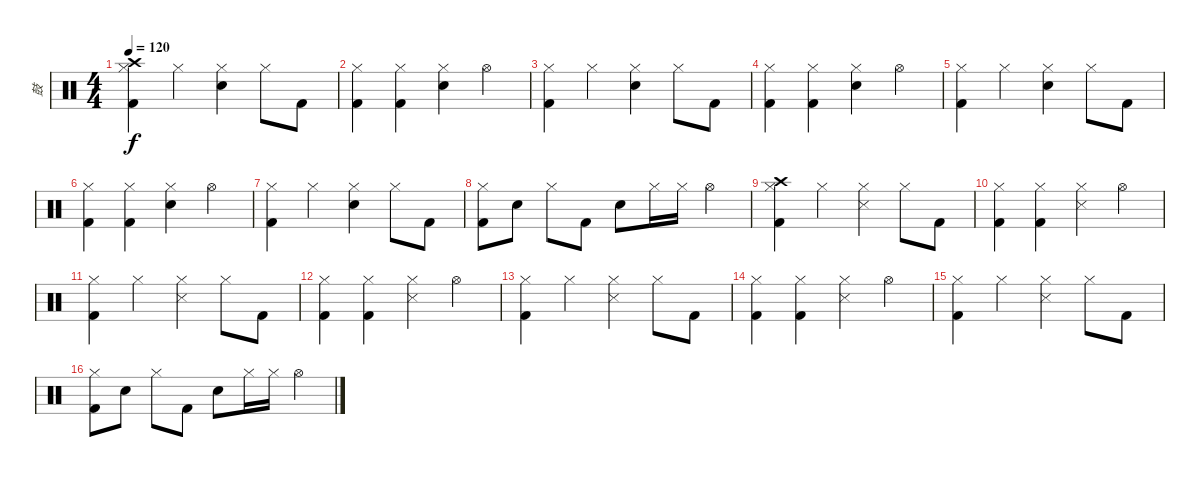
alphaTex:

\track ("鼓" "鼓") {instrument percussion}
\staff {score}
\articulation defaults
\ts (4 4)
\tempo 120
\clef neutral
\ks c
("Hi-Hat (closed)" "Crash high (hit)" "Kick (hit) 2").4{dy f} "Hi-Hat (closed)".4 ("Hi-Hat (closed)" "Electric Snare (hit)").4 "Hi-Hat (closed)".8 "Kick (hit) 2".8 |
("Hi-Hat (closed)" "Kick (hit) 2").4 ("Hi-Hat (closed)" "Kick (hit) 2").4 ("Hi-Hat (closed)" "Electric Snare (hit)").4 "Hi-Hat (open)".4 |
("Hi-Hat (closed)" "Kick (hit) 2").4 "Hi-Hat (closed)".4 ("Hi-Hat (closed)" "Electric Snare (hit)").4 "Hi-Hat (closed)".8 "Kick (hit) 2".8 |
("Hi-Hat (closed)" "Kick (hit) 2").4 ("Hi-Hat (closed)" "Kick (hit) 2").4 ("Hi-Hat (closed)" "Electric Snare (hit)").4 "Hi-Hat (open)".4 |
("Hi-Hat (closed)" "Kick (hit) 2").4 "Hi-Hat (closed)".4 ("Hi-Hat (closed)" "Electric Snare (hit)").4 "Hi-Hat (closed)".8 "Kick (hit) 2".8 |
("Hi-Hat (closed)" "Kick (hit) 2").4 ("Hi-Hat (closed)" "Kick (hit) 2").4 ("Hi-Hat (closed)" "Electric Snare (hit)").4 "Hi-Hat (open)".4 |
("Hi-Hat (closed)" "Kick (hit) 2").4 "Hi-Hat (closed)".4 ("Hi-Hat (closed)" "Electric Snare (hit)").4 "Hi-Hat (closed)".8 "Kick (hit) 2".8 |
("Hi-Hat (closed)" "Kick (hit) 2").8 "Electric Snare (hit)".8 "Hi-Hat (closed)".8 "Kick (hit) 2".8 "Electric Snare (hit)".8 "Hi-Hat (closed)".16 "Hi-Hat (closed)".16 "Hi-Hat (open)".4 |
("Hi-Hat (closed)" "Crash high (hit)" "Kick (hit) 2").4 "Hi-Hat (closed)".4 ("Hi-Hat (closed)" "Snare (side stick) 3").4 "Hi-Hat (closed)".8 "Kick (hit) 2".8 |
("Hi-Hat (closed)" "Kick (hit) 2").4 ("Hi-Hat (closed)" "Kick (hit) 2").4 ("Hi-Hat (closed)" "Snare (side stick) 3").4 "Hi-Hat (open)".4 |
("Hi-Hat (closed)" "Kick (hit) 2").4 "Hi-Hat (closed)".4 ("Hi-Hat (closed)" "Snare (side stick) 3").4 "Hi-Hat (closed)".8 "Kick (hit) 2".8 |
("Hi-Hat (closed)" "Kick (hit) 2").4 ("Hi-Hat (closed)" "Kick (hit) 2").4 ("Hi-Hat (closed)" "Snare (side stick) 3").4 "Hi-Hat (open)".4 |
("Hi-Hat (closed)" "Kick (hit) 2").4 "Hi-Hat (closed)".4 ("Hi-Hat (closed)" "Snare (side stick) 3").4 "Hi-Hat (closed)".8 "Kick (hit) 2".8 |
("Hi-Hat (closed)" "Kick (hit) 2").4 ("Hi-Hat (closed)" "Kick (hit) 2").4 ("Hi-Hat (closed)" "Snare (side stick) 3").4 "Hi-Hat (open)".4 |
("Hi-Hat (closed)" "Kick (hit) 2").4 "Hi-Hat (closed)".4 ("Hi-Hat (closed)" "Snare (side stick) 3").4 "Hi-Hat (closed)".8 "Kick (hit) 2".8 |
("Hi-Hat (closed)" "Kick (hit) 2").8 "Electric Snare (hit)".8 "Hi-Hat (closed)".8 "Kick (hit) 2".8 "Electric Snare (hit)".8 "Hi-Hat (closed)".16 "Hi-Hat (closed)".16 "Hi-Hat (open)".4
